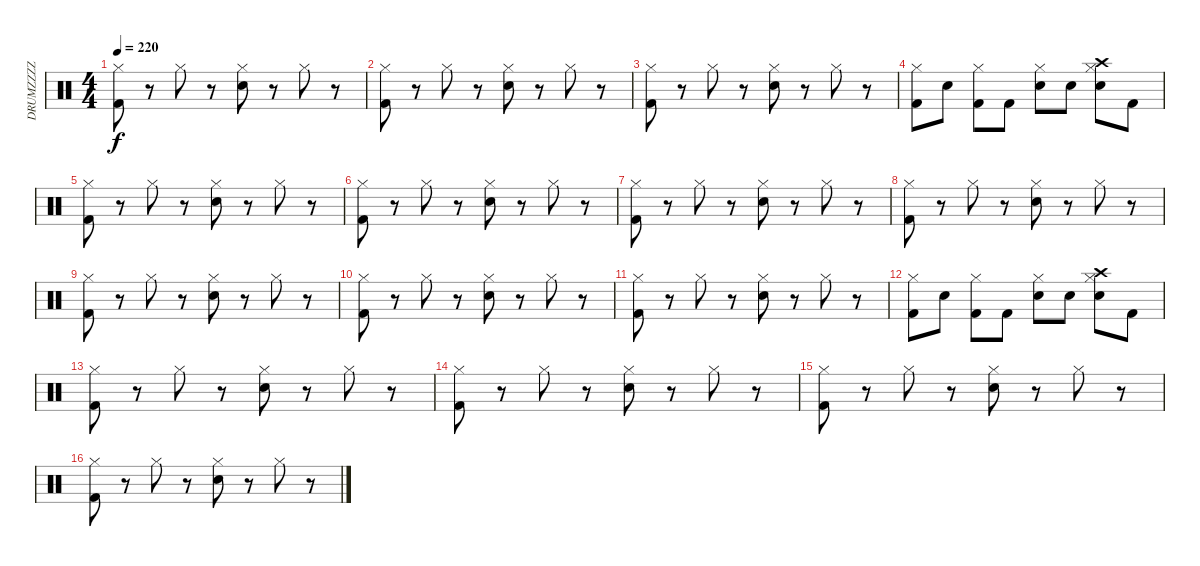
\track ("DRUMZZZZ" "DRUMZZZZ") {instrument percussion}
\staff {score}
\articulation defaults
\ts (4 4)
\tempo 220
\clef neutral
\ks c
("Hi-Hat (closed)" "Kick (hit) 2").8{dy f} r.8 "Hi-Hat (closed)".8 r.8 ("Hi-Hat (closed)" "Snare (hit) 2").8 r.8 "Hi-Hat (closed)".8 r.8 |
("Hi-Hat (closed)" "Kick (hit) 2").8 r.8 "Hi-Hat (closed)".8 r.8 ("Hi-Hat (closed)" "Snare (hit) 2").8 r.8 "Hi-Hat (closed)".8 r.8 |
("Hi-Hat (closed)" "Kick (hit) 2").8 r.8 "Hi-Hat (closed)".8 r.8 ("Hi-Hat (closed)" "Snare (hit) 2").8 r.8 "Hi-Hat (closed)".8 r.8 |
("Hi-Hat (closed)" "Kick (hit) 2").8 "Snare (hit) 2".8 ("Hi-Hat (closed)" "Kick (hit) 2").8 "Kick (hit) 2".8 ("Hi-Hat (closed)" "Electric Snare (hit)").8 "Snare (hit) 2".8 ("Crash high (hit)" "Hi-Hat (closed)" "Snare (hit) 2").8 "Kick (hit) 2".8 |
("Hi-Hat (closed)" "Kick (hit) 2").8 r.8 "Hi-Hat (closed)".8 r.8 ("Hi-Hat (closed)" "Snare (hit) 2").8 r.8 "Hi-Hat (closed)".8 r.8 |
("Hi-Hat (closed)" "Kick (hit) 2").8 r.8 "Hi-Hat (closed)".8 r.8 ("Hi-Hat (closed)" "Snare (hit) 2").8 r.8 "Hi-Hat (closed)".8 r.8 |
("Hi-Hat (closed)" "Kick (hit) 2").8 r.8 "Hi-Hat (closed)".8 r.8 ("Hi-Hat (closed)" "Snare (hit) 2").8 r.8 "Hi-Hat (closed)".8 r.8 |
("Hi-Hat (closed)" "Kick (hit) 2").8 r.8 "Hi-Hat (closed)".8 r.8 ("Hi-Hat (closed)" "Snare (hit) 2").8 r.8 "Hi-Hat (closed)".8 r.8 |
("Hi-Hat (closed)" "Kick (hit) 2").8 r.8 "Hi-Hat (closed)".8 r.8 ("Hi-Hat (closed)" "Snare (hit) 2").8 r.8 "Hi-Hat (closed)".8 r.8 |
("Hi-Hat (closed)" "Kick (hit) 2").8 r.8 "Hi-Hat (closed)".8 r.8 ("Hi-Hat (closed)" "Snare (hit) 2").8 r.8 "Hi-Hat (closed)".8 r.8 |
("Hi-Hat (closed)" "Kick (hit) 2").8 r.8 "Hi-Hat (closed)".8 r.8 ("Hi-Hat (closed)" "Snare (hit) 2").8 r.8 "Hi-Hat (closed)".8 r.8 |
("Hi-Hat (closed)" "Kick (hit) 2").8 "Snare (hit) 2".8 ("Hi-Hat (closed)" "Kick (hit) 2").8 "Kick (hit) 2".8 ("Hi-Hat (closed)" "Electric Snare (hit)").8 "Snare (hit) 2".8 ("Crash high (hit)" "Hi-Hat (closed)" "Snare (hit) 2").8 "Kick (hit) 2".8 |
("Hi-Hat (closed)" "Kick (hit) 2").8 r.8 "Hi-Hat (closed)".8 r.8 ("Hi-Hat (closed)" "Snare (hit) 2").8 r.8 "Hi-Hat (closed)".8 r.8 |
("Hi-Hat (closed)" "Kick (hit) 2").8 r.8 "Hi-Hat (closed)".8 r.8 ("Hi-Hat (closed)" "Snare (hit) 2").8 r.8 "Hi-Hat (closed)".8 r.8 |
("Hi-Hat (closed)" "Kick (hit) 2").8 r.8 "Hi-Hat (closed)".8 r.8 ("Hi-Hat (closed)" "Snare (hit) 2").8 r.8 "Hi-Hat (closed)".8 r.8 |
("Hi-Hat (closed)" "Kick (hit) 2").8 r.8 "Hi-Hat (closed)".8 r.8 ("Hi-Hat (closed)" "Snare (hit) 2").8 r.8 "Hi-Hat (closed)".8 r.8
